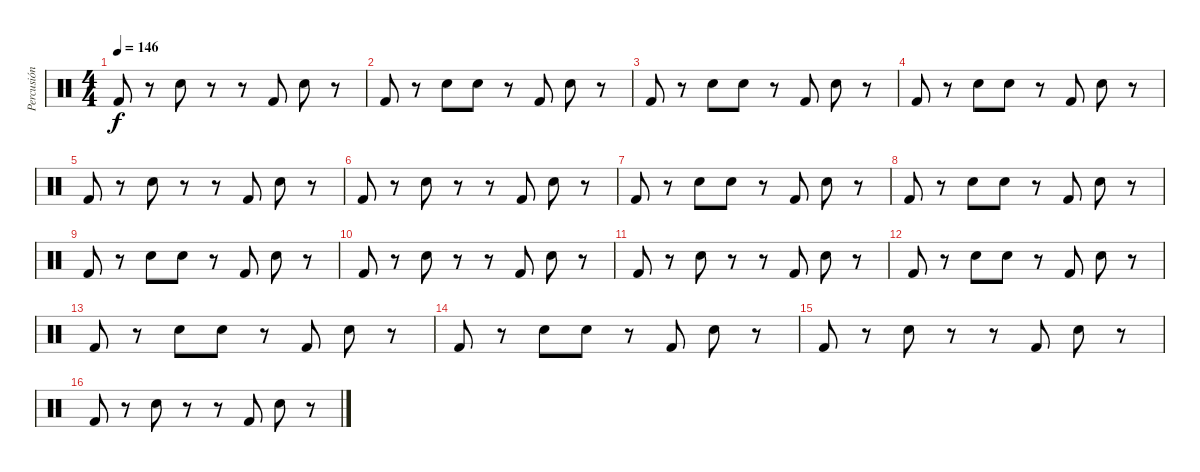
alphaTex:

\track ("Percusión" "Percusión") {instrument percussion}
\staff {score}
\articulation defaults
\ts (4 4)
\tempo 146
\clef neutral
\ks c "Kick (hit) 2".8{dy f}
r.8 "Snare (hit) 2".8 r.8 r.8 "Kick (hit) 2".8 "Snare (hit) 2".8 r.8 |
"Kick (hit) 2".8 r.8 "Snare (hit) 2".8 "Snare (hit) 2".8 r.8 "Kick (hit) 2".8 "Snare (hit) 2".8 r.8 |
"Kick (hit) 2".8 r.8 "Snare (hit) 2".8 "Snare (hit) 2".8 r.8 "Kick (hit) 2".8 "Snare (hit) 2".8 r.8 |
"Kick (hit) 2".8 r.8 "Snare (hit) 2".8 "Snare (hit) 2".8 r.8 "Kick (hit) 2".8 "Snare (hit) 2".8 r.8 |
"Kick (hit) 2".8 r.8 "Snare (hit) 2".8 r.8 r.8 "Kick (hit) 2".8 "Snare (hit) 2".8 r.8 |
"Kick (hit) 2".8 r.8 "Snare (hit) 2".8 r.8 r.8 "Kick (hit) 2".8 "Snare (hit) 2".8 r.8 |
"Kick (hit) 2".8 r.8 "Snare (hit) 2".8 "Snare (hit) 2".8 r.8 "Kick (hit) 2".8 "Snare (hit) 2".8 r.8 |
"Kick (hit) 2".8 r.8 "Snare (hit) 2".8 "Snare (hit) 2".8 r.8 "Kick (hit) 2".8 "Snare (hit) 2".8 r.8 |
"Kick (hit) 2".8 r.8 "Snare (hit) 2".8 "Snare (hit) 2".8 r.8 "Kick (hit) 2".8 "Snare (hit) 2".8 r.8 |
"Kick (hit) 2".8 r.8 "Snare (hit) 2".8 r.8 r.8 "Kick (hit) 2".8 "Snare (hit) 2".8 r.8 |
"Kick (hit) 2".8 r.8 "Snare (hit) 2".8 r.8 r.8 "Kick (hit) 2".8 "Snare (hit) 2".8 r.8 |
"Kick (hit) 2".8 r.8 "Snare (hit) 2".8 "Snare (hit) 2".8 r.8 "Kick (hit) 2".8 "Snare (hit) 2".8 r.8 |
"Kick (hit) 2".8 r.8 "Snare (hit) 2".8 "Snare (hit) 2".8 r.8 "Kick (hit) 2".8 "Snare (hit) 2".8 r.8 |
"Kick (hit) 2".8 r.8 "Snare (hit) 2".8 "Snare (hit) 2".8 r.8 "Kick (hit) 2".8 "Snare (hit) 2".8 r.8 |
"Kick (hit) 2".8 r.8 "Snare (hit) 2".8 r.8 r.8 "Kick (hit) 2".8 "Snare (hit) 2".8 r.8 |
"Kick (hit) 2".8 r.8 "Snare (hit) 2".8 r.8 r.8 "Kick (hit) 2".8 "Snare (hit) 2".8 r.8
